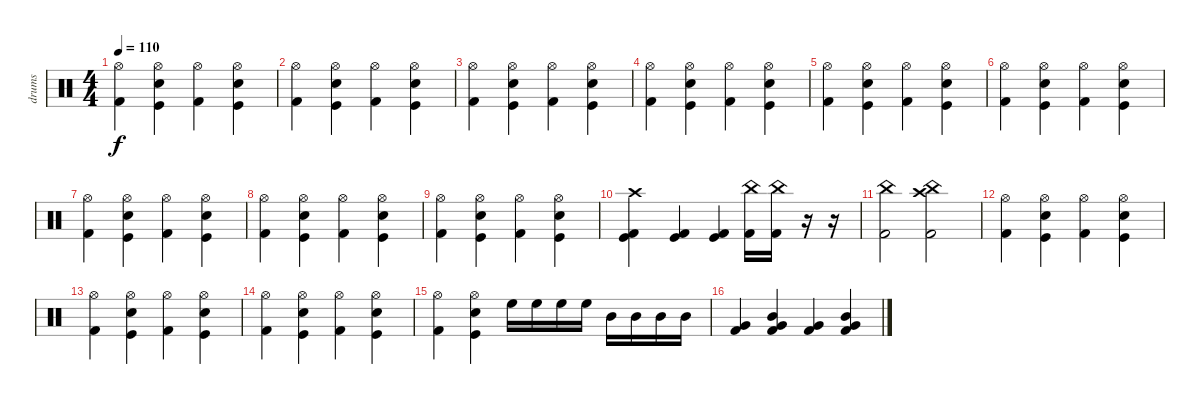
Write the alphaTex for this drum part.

\track ("drums" "drums") {instrument percussion}
\staff {score}
\articulation defaults
\ts (4 4)
\tempo 110
\clef neutral
\ks c
("Hi-Hat (open)" "Kick (hit) 2").4{dy f} ("Hi-Hat (open)" "Snare (hit) 2" "Kick (hit)").4 ("Hi-Hat (open)" "Kick (hit) 2").4 ("Hi-Hat (open)" "Snare (hit) 2" "Kick (hit)").4 |
("Hi-Hat (open)" "Kick (hit) 2").4 ("Hi-Hat (open)" "Snare (hit) 2" "Kick (hit)").4 ("Hi-Hat (open)" "Kick (hit) 2").4 ("Hi-Hat (open)" "Snare (hit) 2" "Kick (hit)").4 |
("Hi-Hat (open)" "Kick (hit) 2").4 ("Hi-Hat (open)" "Snare (hit) 2" "Kick (hit)").4 ("Hi-Hat (open)" "Kick (hit) 2").4 ("Hi-Hat (open)" "Snare (hit) 2" "Kick (hit)").4 |
("Hi-Hat (open)" "Kick (hit) 2").4 ("Hi-Hat (open)" "Snare (hit) 2" "Kick (hit)").4 ("Hi-Hat (open)" "Kick (hit) 2").4 ("Hi-Hat (open)" "Snare (hit) 2" "Kick (hit)").4 |
("Hi-Hat (open)" "Kick (hit) 2").4 ("Hi-Hat (open)" "Snare (hit) 2" "Kick (hit)").4 ("Hi-Hat (open)" "Kick (hit) 2").4 ("Hi-Hat (open)" "Snare (hit) 2" "Kick (hit)").4 |
("Hi-Hat (open)" "Kick (hit) 2").4 ("Hi-Hat (open)" "Snare (hit) 2" "Kick (hit)").4 ("Hi-Hat (open)" "Kick (hit) 2").4 ("Hi-Hat (open)" "Snare (hit) 2" "Kick (hit)").4 |
("Hi-Hat (open)" "Kick (hit) 2").4 ("Hi-Hat (open)" "Snare (hit) 2" "Kick (hit)").4 ("Hi-Hat (open)" "Kick (hit) 2").4 ("Hi-Hat (open)" "Snare (hit) 2" "Kick (hit)").4 |
("Hi-Hat (open)" "Kick (hit) 2").4 ("Hi-Hat (open)" "Snare (hit) 2" "Kick (hit)").4 ("Hi-Hat (open)" "Kick (hit) 2").4 ("Hi-Hat (open)" "Snare (hit) 2" "Kick (hit)").4 |
("Hi-Hat (open)" "Kick (hit) 2").4 ("Hi-Hat (open)" "Snare (hit) 2" "Kick (hit)").4 ("Hi-Hat (open)" "Kick (hit) 2").4 ("Hi-Hat (open)" "Snare (hit) 2" "Kick (hit)").4 |
("Crash high (hit)" "Kick (hit) 2" "Kick (hit)").4 ("Kick (hit) 2" "Kick (hit)").4 ("Kick (hit) 2" "Kick (hit)").4 ("China (hit)" "Kick (hit) 2").16 ("China (hit)" "Kick (hit) 2").16 r.16 r.16 |
("China (hit)" "Kick (hit) 2").2 ("Crash high (hit)" "China (hit)" "Kick (hit) 2").2 |
("Hi-Hat (open)" "Kick (hit) 2").4 ("Hi-Hat (open)" "Snare (hit) 2" "Kick (hit)").4 ("Hi-Hat (open)" "Kick (hit) 2").4 ("Hi-Hat (open)" "Snare (hit) 2" "Kick (hit)").4 |
("Hi-Hat (open)" "Kick (hit) 2").4 ("Hi-Hat (open)" "Snare (hit) 2" "Kick (hit)").4 ("Hi-Hat (open)" "Kick (hit) 2").4 ("Hi-Hat (open)" "Snare (hit) 2" "Kick (hit)").4 |
("Hi-Hat (open)" "Kick (hit) 2").4 ("Hi-Hat (open)" "Snare (hit) 2" "Kick (hit)").4 ("Hi-Hat (open)" "Kick (hit) 2").4 ("Hi-Hat (open)" "Snare (hit) 2" "Kick (hit)").4 |
("Hi-Hat (open)" "Kick (hit) 2").4 ("Hi-Hat (open)" "Snare (hit) 2" "Kick (hit)").4 "High Floor Tom (hit)".16 "High Floor Tom (hit)".16 "High Floor Tom (hit)".16 "High Floor Tom (hit)".16 "Mid Tom (hit)".16 "Mid Tom (hit)".16 "Mid Tom (hit)".16 "Mid Tom (hit)".16 |
("Very Low Tom (hit)" "Kick (hit) 2").4 ("Mid Tom (hit)" "Very Low Tom (hit)" "Kick (hit) 2").4 ("Very Low Tom (hit)" "Kick (hit) 2").4 ("Mid Tom (hit)" "Very Low Tom (hit)" "Kick (hit) 2").4
